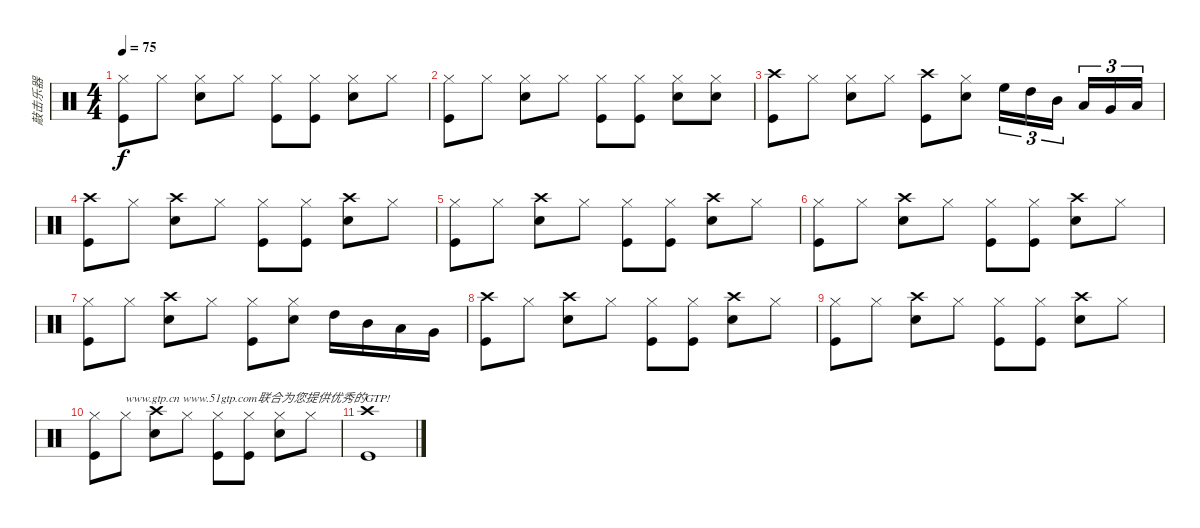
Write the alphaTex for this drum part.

\track ("敲击乐器" "敲击乐器") {instrument percussion}
\staff {score}
\articulation defaults
\ts (4 4)
\tempo 75
\clef neutral
\ks c
("Hi-Hat (closed)" "Kick (hit)").8{dy f} "Hi-Hat (closed)".8 ("Snare (hit) 2" "Hi-Hat (closed)").8 "Hi-Hat (closed)".8 ("Kick (hit)" "Hi-Hat (closed)").8 ("Kick (hit)" "Hi-Hat (closed)").8 ("Snare (hit) 2" "Hi-Hat (closed)").8 "Hi-Hat (closed)".8 |
("Hi-Hat (closed)" "Kick (hit)").8 "Hi-Hat (closed)".8 ("Snare (hit) 2" "Hi-Hat (closed)").8 "Hi-Hat (closed)".8 ("Kick (hit)" "Hi-Hat (closed)").8 ("Kick (hit)" "Hi-Hat (closed)").8 ("Snare (hit) 2" "Hi-Hat (closed)").8 ("Hi-Hat (closed)" "Snare (hit) 2").8 |
("Crash high (hit)" "Kick (hit)").8 "Hi-Hat (closed)".8 ("Snare (hit) 2" "Hi-Hat (closed)").8 "Hi-Hat (closed)".8 ("Crash high (hit)" "Kick (hit)").8 ("Snare (hit) 2" "Hi-Hat (closed)").8 "High Floor Tom (hit)".16{tu (3 2)} "High Tom (hit)".16{tu (3 2)} "Mid Tom (hit)".16{tu (3 2) beam splitsecondary} "Low Tom (hit)".16{tu (3 2)} "Very Low Tom (hit)".16{tu (3 2)} "Low Floor Tom (hit)".16{tu (3 2)} |
("Crash high (hit)" "Kick (hit)").8 "Hi-Hat (closed)".8 ("Snare (hit) 2" "Crash high (hit)").8 "Hi-Hat (closed)".8 ("Kick (hit)" "Hi-Hat (closed)").8 ("Kick (hit)" "Hi-Hat (closed)").8 ("Snare (hit) 2" "Crash high (hit)").8 "Hi-Hat (closed)".8 |
("Hi-Hat (closed)" "Kick (hit)").8 "Hi-Hat (closed)".8 ("Snare (hit) 2" "Crash high (hit)").8 "Hi-Hat (closed)".8 ("Kick (hit)" "Hi-Hat (closed)").8 ("Kick (hit)" "Hi-Hat (closed)").8 ("Snare (hit) 2" "Crash high (hit)").8 "Hi-Hat (closed)".8 |
("Hi-Hat (closed)" "Kick (hit)").8 "Hi-Hat (closed)".8 ("Snare (hit) 2" "Crash high (hit)").8 "Hi-Hat (closed)".8 ("Kick (hit)" "Hi-Hat (closed)").8 ("Kick (hit)" "Hi-Hat (closed)").8 ("Snare (hit) 2" "Crash high (hit)").8 "Hi-Hat (closed)".8 |
("Hi-Hat (closed)" "Kick (hit)").8 "Hi-Hat (closed)".8 ("Snare (hit) 2" "Crash high (hit)").8 "Hi-Hat (closed)".8 ("Kick (hit)" "Hi-Hat (closed)").8 ("Snare (hit) 2" "Hi-Hat (closed)").8 "High Tom (hit)".16 "Mid Tom (hit)".16 "Low Tom (hit)".16 "Very Low Tom (hit)".16 |
("Kick (hit)" "Crash high (hit)").8 "Hi-Hat (closed)".8 ("Snare (hit) 2" "Crash high (hit)").8 "Hi-Hat (closed)".8 ("Kick (hit)" "Hi-Hat (closed)").8 ("Kick (hit)" "Hi-Hat (closed)").8 ("Snare (hit) 2" "Crash high (hit)").8 "Hi-Hat (closed)".8 |
("Hi-Hat (closed)" "Kick (hit)").8 "Hi-Hat (closed)".8 ("Snare (hit) 2" "Crash high (hit)").8 "Hi-Hat (closed)".8 ("Kick (hit)" "Hi-Hat (closed)").8 ("Kick (hit)" "Hi-Hat (closed)").8 ("Snare (hit) 2" "Crash high (hit)").8 "Hi-Hat (closed)".8 |
("Hi-Hat (closed)" "Kick (hit)").8 "Hi-Hat (closed)".8{txt "www.gtp.cn www.51gtp.com联合为您提供优秀的GTP!"} ("Snare (hit) 2" "Crash high (hit)").8 "Hi-Hat (closed)".8 ("Kick (hit)" "Hi-Hat (closed)").8 ("Kick (hit)" "Hi-Hat (closed)").8 ("Snare (hit) 2" "Hi-Hat (closed)").8 "Hi-Hat (closed)".8 |
("Kick (hit)" "Crash high (hit)").1
